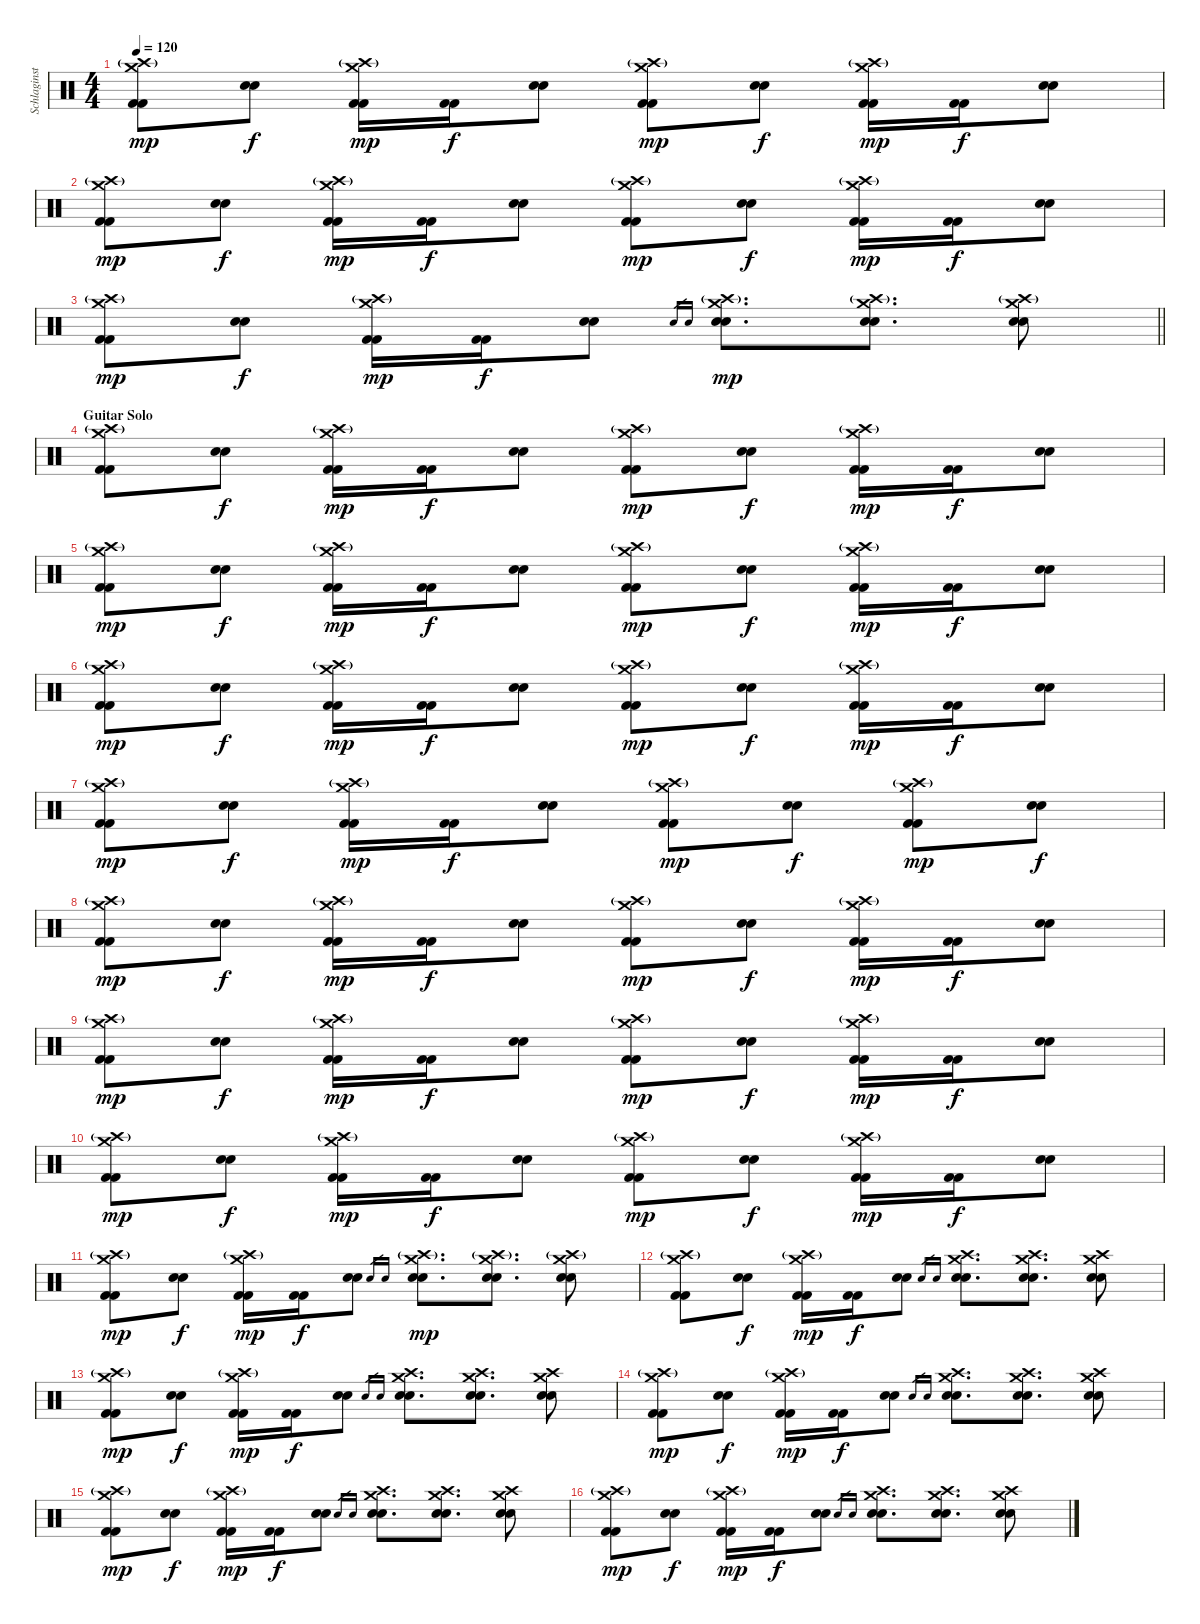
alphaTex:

\track ("Schlaginstrumente - Auswahl" "Schlaginst") {instrument percussion}
\staff {score}
\articulation defaults
\ts (4 4)
\tempo 120
\clef neutral
\ks c
("Crash high (hit)"{g} "Crash medium (hit)" "Kick (hit) 2" "Kick (hit) 2").8{dy mp} ("Electric Snare (hit)" "Electric Snare (hit)").8{dy f} ("Crash high (hit)"{g} "Crash medium (hit)" "Kick (hit) 2" "Kick (hit) 2").16{dy mp} ("Kick (hit) 2" "Kick (hit) 2").16{dy f} ("Electric Snare (hit)" "Electric Snare (hit)").8 ("Crash high (hit)"{g} "Crash medium (hit)" "Kick (hit) 2" "Kick (hit) 2").8{dy mp} ("Electric Snare (hit)" "Electric Snare (hit)").8{dy f} ("Crash high (hit)"{g} "Crash medium (hit)" "Kick (hit) 2" "Kick (hit) 2").16{dy mp} ("Kick (hit) 2" "Kick (hit) 2").16{dy f} ("Electric Snare (hit)" "Electric Snare (hit)").8 |
("Crash high (hit)"{g} "Crash medium (hit)" "Kick (hit) 2" "Kick (hit) 2").8{dy mp} ("Electric Snare (hit)" "Electric Snare (hit)").8{dy f} ("Crash high (hit)"{g} "Crash medium (hit)" "Kick (hit) 2" "Kick (hit) 2").16{dy mp} ("Kick (hit) 2" "Kick (hit) 2").16{dy f} ("Electric Snare (hit)" "Electric Snare (hit)").8 ("Crash high (hit)"{g} "Crash medium (hit)" "Kick (hit) 2" "Kick (hit) 2").8{dy mp} ("Electric Snare (hit)" "Electric Snare (hit)").8{dy f} ("Crash high (hit)"{g} "Crash medium (hit)" "Kick (hit) 2" "Kick (hit) 2").16{dy mp} ("Kick (hit) 2" "Kick (hit) 2").16{dy f} ("Electric Snare (hit)" "Electric Snare (hit)").8 |
\barLineRight lightlight
("Crash high (hit)"{g} "Crash medium (hit)" "Kick (hit) 2" "Kick (hit) 2").8{dy mp} ("Electric Snare (hit)" "Electric Snare (hit)").8{dy f} ("Crash high (hit)"{g} "Crash medium (hit)" "Kick (hit) 2" "Kick (hit) 2").16{dy mp} ("Kick (hit) 2" "Kick (hit) 2").16{dy f} ("Electric Snare (hit)" "Electric Snare (hit)").8 "Electric Snare (hit)".16{gr} "Electric Snare (hit)".16{gr} ("Crash high (hit)"{g} "Crash medium (hit)" "Electric Snare (hit)" "Electric Snare (hit)").8{d dy mp} ("Crash high (hit)"{g} "Crash medium (hit)" "Electric Snare (hit)" "Electric Snare (hit)").8{d} ("Crash high (hit)"{g} "Crash medium (hit)" "Electric Snare (hit)" "Electric Snare (hit)").8 |
\section ("" "Guitar Solo")
("Crash high (hit)"{g} "Crash medium (hit)" "Kick (hit) 2" "Kick (hit) 2").8 ("Electric Snare (hit)" "Electric Snare (hit)").8{dy f} ("Crash high (hit)"{g} "Crash medium (hit)" "Kick (hit) 2" "Kick (hit) 2").16{dy mp} ("Kick (hit) 2" "Kick (hit) 2").16{dy f} ("Electric Snare (hit)" "Electric Snare (hit)").8 ("Crash high (hit)"{g} "Crash medium (hit)" "Kick (hit) 2" "Kick (hit) 2").8{dy mp} ("Electric Snare (hit)" "Electric Snare (hit)").8{dy f} ("Crash high (hit)"{g} "Crash medium (hit)" "Kick (hit) 2" "Kick (hit) 2").16{dy mp} ("Kick (hit) 2" "Kick (hit) 2").16{dy f} ("Electric Snare (hit)" "Electric Snare (hit)").8 |
("Crash high (hit)"{g} "Crash medium (hit)" "Kick (hit) 2" "Kick (hit) 2").8{dy mp} ("Electric Snare (hit)" "Electric Snare (hit)").8{dy f} ("Crash high (hit)"{g} "Crash medium (hit)" "Kick (hit) 2" "Kick (hit) 2").16{dy mp} ("Kick (hit) 2" "Kick (hit) 2").16{dy f} ("Electric Snare (hit)" "Electric Snare (hit)").8 ("Crash high (hit)"{g} "Crash medium (hit)" "Kick (hit) 2" "Kick (hit) 2").8{dy mp} ("Electric Snare (hit)" "Electric Snare (hit)").8{dy f} ("Crash high (hit)"{g} "Crash medium (hit)" "Kick (hit) 2" "Kick (hit) 2").16{dy mp} ("Kick (hit) 2" "Kick (hit) 2").16{dy f} ("Electric Snare (hit)" "Electric Snare (hit)").8 |
("Crash high (hit)"{g} "Crash medium (hit)" "Kick (hit) 2" "Kick (hit) 2").8{dy mp} ("Electric Snare (hit)" "Electric Snare (hit)").8{dy f} ("Crash high (hit)"{g} "Crash medium (hit)" "Kick (hit) 2" "Kick (hit) 2").16{dy mp} ("Kick (hit) 2" "Kick (hit) 2").16{dy f} ("Electric Snare (hit)" "Electric Snare (hit)").8 ("Crash high (hit)"{g} "Crash medium (hit)" "Kick (hit) 2" "Kick (hit) 2").8{dy mp} ("Electric Snare (hit)" "Electric Snare (hit)").8{dy f} ("Crash high (hit)"{g} "Crash medium (hit)" "Kick (hit) 2" "Kick (hit) 2").16{dy mp} ("Kick (hit) 2" "Kick (hit) 2").16{dy f} ("Electric Snare (hit)" "Electric Snare (hit)").8 |
("Crash high (hit)"{g} "Crash medium (hit)" "Kick (hit) 2" "Kick (hit) 2").8{dy mp} ("Electric Snare (hit)" "Electric Snare (hit)").8{dy f} ("Crash high (hit)"{g} "Crash medium (hit)" "Kick (hit) 2" "Kick (hit) 2").16{dy mp} ("Kick (hit) 2" "Kick (hit) 2").16{dy f} ("Electric Snare (hit)" "Electric Snare (hit)").8 ("Crash high (hit)"{g} "Crash medium (hit)" "Kick (hit) 2" "Kick (hit) 2").8{dy mp} ("Electric Snare (hit)" "Electric Snare (hit)").8{dy f} ("Crash high (hit)"{g} "Crash medium (hit)" "Kick (hit) 2" "Kick (hit) 2").8{dy mp} ("Electric Snare (hit)" "Electric Snare (hit)").8{dy f} |
("Crash high (hit)"{g} "Crash medium (hit)" "Kick (hit) 2" "Kick (hit) 2").8{dy mp} ("Electric Snare (hit)" "Electric Snare (hit)").8{dy f} ("Crash high (hit)"{g} "Crash medium (hit)" "Kick (hit) 2" "Kick (hit) 2").16{dy mp} ("Kick (hit) 2" "Kick (hit) 2").16{dy f} ("Electric Snare (hit)" "Electric Snare (hit)").8 ("Crash high (hit)"{g} "Crash medium (hit)" "Kick (hit) 2" "Kick (hit) 2").8{dy mp} ("Electric Snare (hit)" "Electric Snare (hit)").8{dy f} ("Crash high (hit)"{g} "Crash medium (hit)" "Kick (hit) 2" "Kick (hit) 2").16{dy mp} ("Kick (hit) 2" "Kick (hit) 2").16{dy f} ("Electric Snare (hit)" "Electric Snare (hit)").8 |
("Crash high (hit)"{g} "Crash medium (hit)" "Kick (hit) 2" "Kick (hit) 2").8{dy mp} ("Electric Snare (hit)" "Electric Snare (hit)").8{dy f} ("Crash high (hit)"{g} "Crash medium (hit)" "Kick (hit) 2" "Kick (hit) 2").16{dy mp} ("Kick (hit) 2" "Kick (hit) 2").16{dy f} ("Electric Snare (hit)" "Electric Snare (hit)").8 ("Crash high (hit)"{g} "Crash medium (hit)" "Kick (hit) 2" "Kick (hit) 2").8{dy mp} ("Electric Snare (hit)" "Electric Snare (hit)").8{dy f} ("Crash high (hit)"{g} "Crash medium (hit)" "Kick (hit) 2" "Kick (hit) 2").16{dy mp} ("Kick (hit) 2" "Kick (hit) 2").16{dy f} ("Electric Snare (hit)" "Electric Snare (hit)").8 |
("Crash high (hit)"{g} "Crash medium (hit)" "Kick (hit) 2" "Kick (hit) 2").8{dy mp} ("Electric Snare (hit)" "Electric Snare (hit)").8{dy f} ("Crash high (hit)"{g} "Crash medium (hit)" "Kick (hit) 2" "Kick (hit) 2").16{dy mp} ("Kick (hit) 2" "Kick (hit) 2").16{dy f} ("Electric Snare (hit)" "Electric Snare (hit)").8 ("Crash high (hit)"{g} "Crash medium (hit)" "Kick (hit) 2" "Kick (hit) 2").8{dy mp} ("Electric Snare (hit)" "Electric Snare (hit)").8{dy f} ("Crash high (hit)"{g} "Crash medium (hit)" "Kick (hit) 2" "Kick (hit) 2").16{dy mp} ("Kick (hit) 2" "Kick (hit) 2").16{dy f} ("Electric Snare (hit)" "Electric Snare (hit)").8 |
("Crash high (hit)"{g} "Crash medium (hit)" "Kick (hit) 2" "Kick (hit) 2").8{dy mp} ("Electric Snare (hit)" "Electric Snare (hit)").8{dy f} ("Crash high (hit)"{g} "Crash medium (hit)" "Kick (hit) 2" "Kick (hit) 2").16{dy mp} ("Kick (hit) 2" "Kick (hit) 2").16{dy f} ("Electric Snare (hit)" "Electric Snare (hit)").8 "Electric Snare (hit)".16{gr} "Electric Snare (hit)".16{gr} ("Crash high (hit)"{g} "Crash medium (hit)" "Electric Snare (hit)" "Electric Snare (hit)").8{d dy mp} ("Crash high (hit)"{g} "Crash medium (hit)" "Electric Snare (hit)" "Electric Snare (hit)").8{d} ("Crash high (hit)"{g} "Crash medium (hit)" "Electric Snare (hit)" "Electric Snare (hit)").8 |
("Crash high (hit)"{g} "Crash medium (hit)" "Kick (hit) 2" "Kick (hit) 2").8 ("Electric Snare (hit)" "Electric Snare (hit)").8{dy f} ("Crash high (hit)"{g} "Crash medium (hit)" "Kick (hit) 2" "Kick (hit) 2").16{dy mp} ("Kick (hit) 2" "Kick (hit) 2").16{dy f} ("Electric Snare (hit)" "Electric Snare (hit)").8 "Electric Snare (hit)".16{gr} "Electric Snare (hit)".16{gr} ("Crash high (hit)" "Crash medium (hit)" "Electric Snare (hit)" "Electric Snare (hit)").8{d} ("Crash high (hit)" "Crash medium (hit)" "Electric Snare (hit)" "Electric Snare (hit)").8{d} ("Crash high (hit)" "Crash medium (hit)" "Electric Snare (hit)" "Electric Snare (hit)").8 |
("Crash high (hit)"{g} "Crash medium (hit)" "Kick (hit) 2" "Kick (hit) 2").8{dy mp} ("Electric Snare (hit)" "Electric Snare (hit)").8{dy f} ("Crash high (hit)"{g} "Crash medium (hit)" "Kick (hit) 2" "Kick (hit) 2").16{dy mp} ("Kick (hit) 2" "Kick (hit) 2").16{dy f} ("Electric Snare (hit)" "Electric Snare (hit)").8 "Electric Snare (hit)".16{gr} "Electric Snare (hit)".16{gr} ("Crash high (hit)" "Crash medium (hit)" "Electric Snare (hit)" "Electric Snare (hit)").8{d} ("Crash high (hit)" "Crash medium (hit)" "Electric Snare (hit)" "Electric Snare (hit)").8{d} ("Crash high (hit)" "Crash medium (hit)" "Electric Snare (hit)" "Electric Snare (hit)").8 |
("Crash high (hit)"{g} "Crash medium (hit)" "Kick (hit) 2" "Kick (hit) 2").8{dy mp} ("Electric Snare (hit)" "Electric Snare (hit)").8{dy f} ("Crash high (hit)"{g} "Crash medium (hit)" "Kick (hit) 2" "Kick (hit) 2").16{dy mp} ("Kick (hit) 2" "Kick (hit) 2").16{dy f} ("Electric Snare (hit)" "Electric Snare (hit)").8 "Electric Snare (hit)".16{gr} "Electric Snare (hit)".16{gr} ("Crash high (hit)" "Crash medium (hit)" "Electric Snare (hit)" "Electric Snare (hit)").8{d} ("Crash high (hit)" "Crash medium (hit)" "Electric Snare (hit)" "Electric Snare (hit)").8{d} ("Crash high (hit)" "Crash medium (hit)" "Electric Snare (hit)" "Electric Snare (hit)").8 |
("Crash high (hit)"{g} "Crash medium (hit)" "Kick (hit) 2" "Kick (hit) 2").8{dy mp} ("Electric Snare (hit)" "Electric Snare (hit)").8{dy f} ("Crash high (hit)"{g} "Crash medium (hit)" "Kick (hit) 2" "Kick (hit) 2").16{dy mp} ("Kick (hit) 2" "Kick (hit) 2").16{dy f} ("Electric Snare (hit)" "Electric Snare (hit)").8 "Electric Snare (hit)".16{gr} "Electric Snare (hit)".16{gr} ("Crash high (hit)" "Crash medium (hit)" "Electric Snare (hit)" "Electric Snare (hit)").8{d} ("Crash high (hit)" "Crash medium (hit)" "Electric Snare (hit)" "Electric Snare (hit)").8{d} ("Crash high (hit)" "Crash medium (hit)" "Electric Snare (hit)" "Electric Snare (hit)").8 |
("Crash high (hit)"{g} "Crash medium (hit)" "Kick (hit) 2" "Kick (hit) 2").8{dy mp} ("Electric Snare (hit)" "Electric Snare (hit)").8{dy f} ("Crash high (hit)"{g} "Crash medium (hit)" "Kick (hit) 2" "Kick (hit) 2").16{dy mp} ("Kick (hit) 2" "Kick (hit) 2").16{dy f} ("Electric Snare (hit)" "Electric Snare (hit)").8 "Electric Snare (hit)".16{gr} "Electric Snare (hit)".16{gr} ("Crash high (hit)" "Crash medium (hit)" "Electric Snare (hit)" "Electric Snare (hit)").8{d} ("Crash high (hit)" "Crash medium (hit)" "Electric Snare (hit)" "Electric Snare (hit)").8{d} ("Crash high (hit)" "Crash medium (hit)" "Electric Snare (hit)" "Electric Snare (hit)").8
